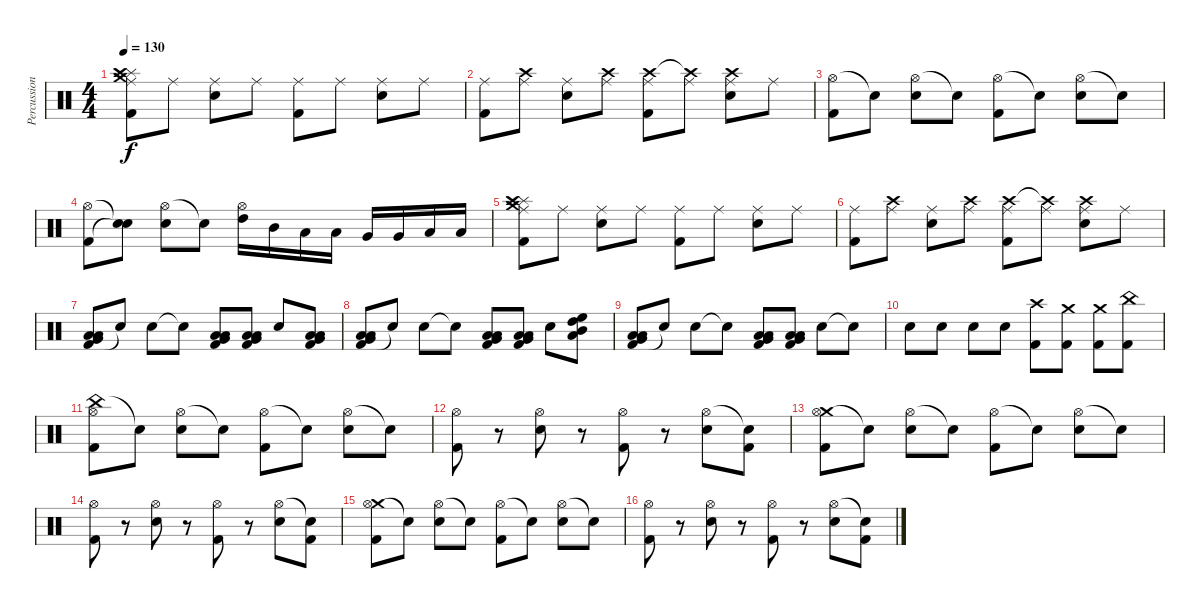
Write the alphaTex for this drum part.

\track ("Percussion" "Percussion") {instrument percussion}
\staff {score}
\articulation defaults
\ts (4 4)
\tempo 130
\clef neutral
\ks c
("Splash (hit)" "Crash high (hit)" "Crash medium (hit)" "Ride (middle)" "Kick (hit) 2").8{dy f} "Ride (middle)".8 ("Ride (middle)" "Electric Snare (hit)").8 "Ride (middle)".8 ("Ride (middle)" "Kick (hit) 2").8 "Ride (middle)".8 ("Ride (middle)" "Electric Snare (hit)").8 "Ride (middle)".8 |
("Ride (middle)" "Kick (hit) 2").8 ("Crash high (hit)" "Ride (middle)").8 ("Ride (middle)" "Electric Snare (hit)").8 ("Crash high (hit)" "Ride (middle)").8 ("Crash high (hit)" "Ride (middle)" "Kick (hit) 2").8 ("Crash high (hit)"{t} "Ride (middle)").8 ("Crash high (hit)" "Ride (middle)" "Electric Snare (hit)").8 "Ride (middle)".8 |
("Hi-Hat (open)" "Kick (hit) 2").8 "Snare (hit)"{t}.8 ("Hi-Hat (open)" "Electric Snare (hit)").8 "Snare (hit)"{t}.8 ("Hi-Hat (open)" "Kick (hit) 2").8 "Snare (hit)"{t}.8 ("Hi-Hat (open)" "Electric Snare (hit)").8 "Snare (hit)"{t}.8 |
("Hi-Hat (open)" "Kick (hit) 2").8 ("Snare (hit)"{t} "Snare (hit)"{t}).8 ("Hi-Hat (open)" "Electric Snare (hit)").8 "Snare (hit)"{t}.8 ("Hi-Hat (open)" "High Tom (hit)").16 "Mid Tom (hit)".16 "Low Tom (hit)".16 "Low Tom (hit)".16 "Very Low Tom (hit)".16 "Very Low Tom (hit)".16 "Low Floor Tom (hit)".16 "Low Floor Tom (hit)".16 |
("Splash (hit)" "Crash high (hit)" "Crash medium (hit)" "Ride (middle)" "Kick (hit) 2").8 "Ride (middle)".8 ("Ride (middle)" "Electric Snare (hit)").8 "Ride (middle)".8 ("Ride (middle)" "Kick (hit) 2").8 "Ride (middle)".8 ("Ride (middle)" "Electric Snare (hit)").8 "Ride (middle)".8 |
("Ride (middle)" "Kick (hit) 2").8 ("Crash high (hit)" "Ride (middle)").8 ("Ride (middle)" "Electric Snare (hit)").8 ("Crash high (hit)" "Ride (middle)").8 ("Crash high (hit)" "Ride (middle)" "Kick (hit) 2").8 ("Crash high (hit)"{t} "Ride (middle)").8 ("Crash high (hit)" "Ride (middle)" "Electric Snare (hit)").8 "Ride (middle)".8 |
("Kick (hit) 2" "Low Tom (hit)" "Very Low Tom (hit)" "Low Floor Tom (hit)").8 "Snare (hit)"{t}.8 "Electric Snare (hit)".8 "Snare (hit)"{t}.8 ("Kick (hit) 2" "Low Tom (hit)" "Very Low Tom (hit)" "Low Floor Tom (hit)").8 ("Kick (hit) 2" "Low Tom (hit)" "Very Low Tom (hit)" "Low Floor Tom (hit)").8 "Electric Snare (hit)".8 ("Kick (hit) 2" "Low Tom (hit)" "Very Low Tom (hit)" "Low Floor Tom (hit)").8 |
("Kick (hit) 2" "Low Tom (hit)" "Very Low Tom (hit)" "Low Floor Tom (hit)").8 "Snare (hit)"{t}.8 "Electric Snare (hit)".8 "Snare (hit)"{t}.8 ("Kick (hit) 2" "Low Tom (hit)" "Very Low Tom (hit)" "Low Floor Tom (hit)").8 ("Kick (hit) 2" "Low Tom (hit)" "Very Low Tom (hit)" "Low Floor Tom (hit)").8 "Electric Snare (hit)".8 ("High Tom (hit)" "Mid Tom (hit)" "Low Tom (hit)" "High Floor Tom (hit)").8 |
("Kick (hit) 2" "Low Tom (hit)" "Very Low Tom (hit)" "Low Floor Tom (hit)").8 "Snare (hit)"{t}.8 "Electric Snare (hit)".8 "Snare (hit)"{t}.8 ("Kick (hit) 2" "Low Tom (hit)" "Very Low Tom (hit)" "Low Floor Tom (hit)").8 ("Kick (hit) 2" "Low Tom (hit)" "Very Low Tom (hit)" "Low Floor Tom (hit)").8 "Electric Snare (hit)".8 "Snare (hit)"{t}.8 |
"Electric Snare (hit)".8 "Electric Snare (hit)".8 "Electric Snare (hit)".8 "Electric Snare (hit)".8 ("Crash high (hit)" "Kick (hit) 2").8 ("Crash medium (hit)" "Kick (hit) 2").8 ("Crash medium (hit)" "Kick (hit) 2").8 ("China (hit)" "Kick (hit) 2").8 |
("China (hit)" "Hi-Hat (open)" "Kick (hit) 2").8 "Snare (hit)"{t}.8 ("Hi-Hat (open)" "Electric Snare (hit)").8 "Snare (hit)"{t}.8 ("Hi-Hat (open)" "Kick (hit) 2").8 "Snare (hit)"{t}.8 ("Hi-Hat (open)" "Electric Snare (hit)").8 "Snare (hit)"{t}.8 |
("Hi-Hat (open)" "Kick (hit) 2").8 r.8 ("Hi-Hat (open)" "Electric Snare (hit)").8 r.8 ("Hi-Hat (open)" "Kick (hit) 2").8 r.8 ("Hi-Hat (open)" "Electric Snare (hit)").8 ("Snare (hit)"{t} "Kick (hit) 2").8 |
("Crash medium (hit)" "Hi-Hat (open)" "Kick (hit) 2").8 "Snare (hit)"{t}.8 ("Hi-Hat (open)" "Electric Snare (hit)").8 "Snare (hit)"{t}.8 ("Hi-Hat (open)" "Kick (hit) 2").8 "Snare (hit)"{t}.8 ("Hi-Hat (open)" "Electric Snare (hit)").8 "Snare (hit)"{t}.8 |
("Hi-Hat (open)" "Kick (hit) 2").8 r.8 ("Hi-Hat (open)" "Electric Snare (hit)").8 r.8 ("Hi-Hat (open)" "Kick (hit) 2").8 r.8 ("Hi-Hat (open)" "Electric Snare (hit)").8 ("Snare (hit)"{t} "Kick (hit) 2").8 |
("Crash medium (hit)" "Hi-Hat (open)" "Kick (hit) 2").8 "Snare (hit)"{t}.8 ("Hi-Hat (open)" "Electric Snare (hit)").8 "Snare (hit)"{t}.8 ("Hi-Hat (open)" "Kick (hit) 2").8 "Snare (hit)"{t}.8 ("Hi-Hat (open)" "Electric Snare (hit)").8 "Snare (hit)"{t}.8 |
("Hi-Hat (open)" "Kick (hit) 2").8 r.8 ("Hi-Hat (open)" "Electric Snare (hit)").8 r.8 ("Hi-Hat (open)" "Kick (hit) 2").8 r.8 ("Hi-Hat (open)" "Electric Snare (hit)").8 ("Snare (hit)"{t} "Kick (hit) 2").8
